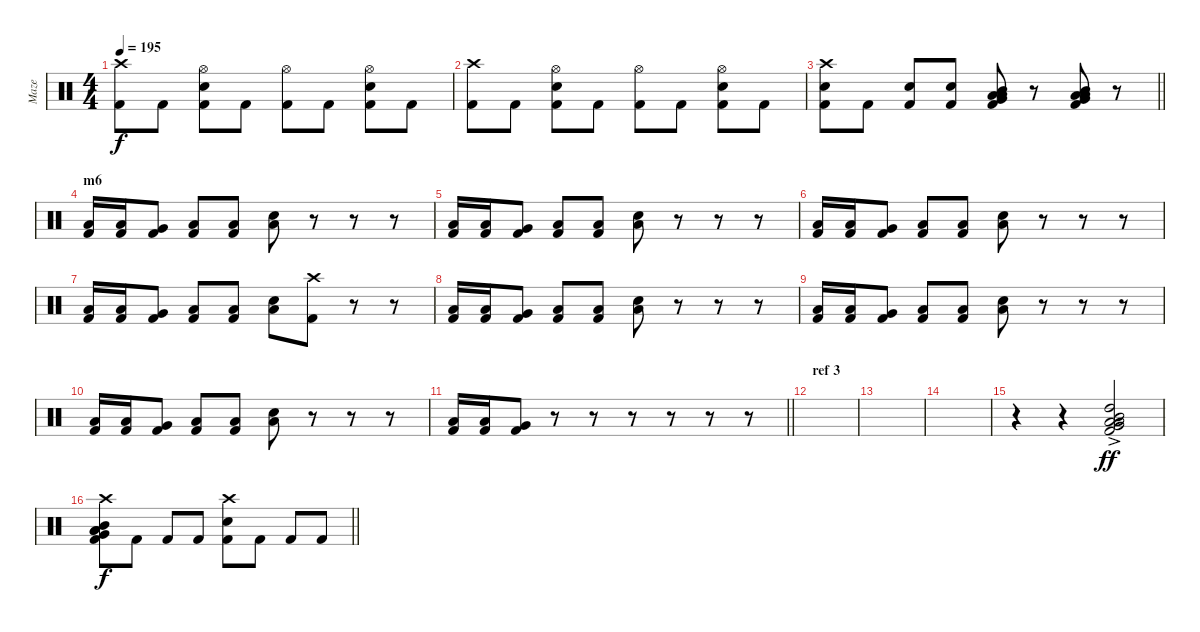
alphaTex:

\track ("Maze" "Maze") {instrument percussion}
\staff
\articulation defaults
\ts (4 4)
\tempo 195
\clef neutral
\ks c
("Crash high (hit)" "Kick (hit) 2").8{dy f} "Kick (hit) 2".8 ("Electric Snare (hit)" "Hi-Hat (open)" "Kick (hit) 2").8 "Kick (hit) 2".8 ("Hi-Hat (open)" "Kick (hit) 2").8 "Kick (hit) 2".8 ("Electric Snare (hit)" "Hi-Hat (open)" "Kick (hit) 2").8 "Kick (hit) 2".8 |
("Crash high (hit)" "Kick (hit) 2").8 "Kick (hit) 2".8 ("Electric Snare (hit)" "Hi-Hat (open)" "Kick (hit) 2").8 "Kick (hit) 2".8 ("Hi-Hat (open)" "Kick (hit) 2").8 "Kick (hit) 2".8 ("Electric Snare (hit)" "Hi-Hat (open)" "Kick (hit) 2").8 "Kick (hit) 2".8 |
\barLineRight lightlight
("Crash high (hit)" "Snare (hit) 2" "Kick (hit) 2").8 "Kick (hit) 2".8 ("Electric Snare (hit)" "Kick (hit) 2").8 ("Electric Snare (hit)" "Kick (hit) 2").8 ("Mid Tom (hit)" "Low Tom (hit)" "Very Low Tom (hit)" "Low Floor Tom (hit)" "Kick (hit) 2").8 r.8 ("Mid Tom (hit)" "Low Tom (hit)" "Very Low Tom (hit)" "Low Floor Tom (hit)" "Kick (hit) 2").8 r.8 |
\section ("" "m6")
("Low Tom (hit)" "Kick (hit) 2").16 ("Low Tom (hit)" "Kick (hit) 2").16 ("Very Low Tom (hit)" "Kick (hit) 2").8 ("Low Floor Tom (hit)" "Kick (hit) 2").8 ("Low Floor Tom (hit)" "Kick (hit) 2").8 ("Snare (hit) 2" "Low Tom (hit)").8 r.8 r.8 r.8 |
("Low Tom (hit)" "Kick (hit) 2").16 ("Low Tom (hit)" "Kick (hit) 2").16 ("Very Low Tom (hit)" "Kick (hit) 2").8 ("Low Floor Tom (hit)" "Kick (hit) 2").8 ("Low Floor Tom (hit)" "Kick (hit) 2").8 ("Snare (hit) 2" "Low Tom (hit)").8 r.8 r.8 r.8 |
("Low Tom (hit)" "Kick (hit) 2").16 ("Low Tom (hit)" "Kick (hit) 2").16 ("Very Low Tom (hit)" "Kick (hit) 2").8 ("Low Floor Tom (hit)" "Kick (hit) 2").8 ("Low Floor Tom (hit)" "Kick (hit) 2").8 ("Snare (hit) 2" "Low Tom (hit)").8 r.8 r.8 r.8 |
("Low Tom (hit)" "Kick (hit) 2").16 ("Low Tom (hit)" "Kick (hit) 2").16 ("Very Low Tom (hit)" "Kick (hit) 2").8 ("Low Floor Tom (hit)" "Kick (hit) 2").8 ("Low Floor Tom (hit)" "Kick (hit) 2").8 ("Snare (hit) 2" "Low Tom (hit)").8 ("Crash high (hit)" "Kick (hit) 2").8 r.8 r.8 |
("Low Tom (hit)" "Kick (hit) 2").16 ("Low Tom (hit)" "Kick (hit) 2").16 ("Very Low Tom (hit)" "Kick (hit) 2").8 ("Low Floor Tom (hit)" "Kick (hit) 2").8 ("Low Floor Tom (hit)" "Kick (hit) 2").8 ("Snare (hit) 2" "Low Tom (hit)").8 r.8 r.8 r.8 |
("Low Tom (hit)" "Kick (hit) 2").16 ("Low Tom (hit)" "Kick (hit) 2").16 ("Very Low Tom (hit)" "Kick (hit) 2").8 ("Low Floor Tom (hit)" "Kick (hit) 2").8 ("Low Floor Tom (hit)" "Kick (hit) 2").8 ("Snare (hit) 2" "Low Tom (hit)").8 r.8 r.8 r.8 |
("Low Tom (hit)" "Kick (hit) 2").16 ("Low Tom (hit)" "Kick (hit) 2").16 ("Very Low Tom (hit)" "Kick (hit) 2").8 ("Low Floor Tom (hit)" "Kick (hit) 2").8 ("Low Floor Tom (hit)" "Kick (hit) 2").8 ("Snare (hit) 2" "Low Tom (hit)").8 r.8 r.8 r.8 |
\barLineRight lightlight
("Low Tom (hit)" "Kick (hit) 2").16 ("Low Tom (hit)" "Kick (hit) 2").16 ("Very Low Tom (hit)" "Kick (hit) 2").8 r.8 r.8 r.8 r.8 r.8 r.8 |
\section ("" "ref 3")
|
|
|
r.4 r.4 ("High Tom (hit)"{ac} "Mid Tom (hit)"{ac} "Low Tom (hit)"{ac} "Very Low Tom (hit)"{ac} "Low Floor Tom (hit)"{ac} "Kick (hit) 2"{ac}).2{dy ff} |
\barLineRight lightlight
("Mid Tom (hit)" "Low Floor Tom (hit)" "Low Tom (hit)" "Crash high (hit)" "Very Low Tom (hit)" "Kick (hit) 2").8{dy f} "Kick (hit) 2".8 "Kick (hit) 2".8 "Kick (hit) 2".8 ("Snare (hit) 2" "Crash high (hit)" "Kick (hit) 2").8 "Kick (hit) 2".8 "Kick (hit) 2".8 "Kick (hit) 2".8
